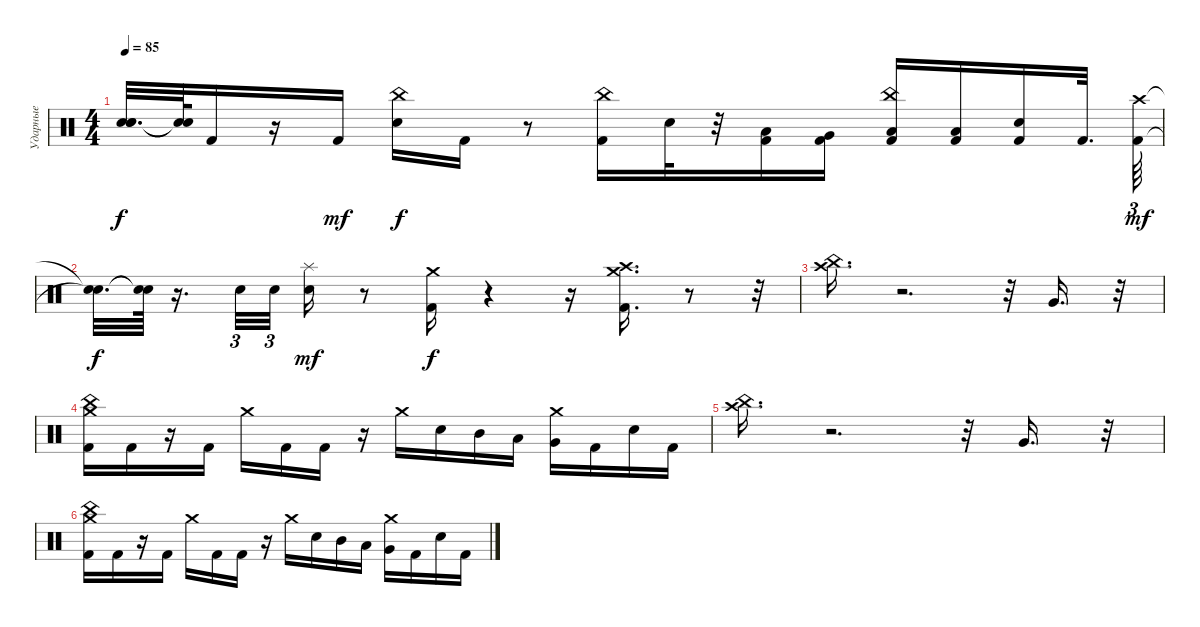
\track ("Ударные" "Ударные") {instrument percussion}
\staff {score}
\articulation defaults
\ts (4 4)
\tempo 85
\clef neutral
\ks c
("Snare (hit)"{t} "Snare (hit)"{t} "Snare (hit)"{t}).32{d dy f} ("Snare (hit)"{t} "Snare (hit)"{t}).64 "Kick (hit) 2".16 r.16 "Kick (hit) 2".16{dy mf} ("Snare (hit) 2" "China (hit)").16{dy f} "Kick (hit) 2".16 r.8 ("Kick (hit) 2" "China (hit)").16 "Electric Snare (hit)".32 r.32 ("Low Tom (hit)" "Kick (hit) 2").16 ("Very Low Tom (hit)" "Kick (hit) 2").16 ("Kick (hit) 2" "Low Floor Tom (hit)" "China (hit)").16 ("Low Floor Tom (hit)" "Kick (hit) 2").16 ("Electric Snare (hit)" "Kick (hit) 2").16 "Kick (hit) 2".32{d} ("Crash high (hit)" "Kick (hit) 2").64{tu (3 2) dy mf} |
("Snare (hit)"{t} "Snare (hit)"{t}).32{d dy f} ("Snare (hit)"{t} "Snare (hit)"{t}).64 r.16{d} "Snare (hit) 2".32{tu (3 2)} "Snare (hit) 2".32{tu (3 2) beam splitsecondary} ("Splash (hit)" "Snare (hit) 2").16{dy mf} r.8 ("Crash medium (hit)" "Kick (hit) 2").16{dy f} r.4 r.16 ("Crash medium (hit)" "Crash high (hit)" "Kick (hit) 2").16{d} r.8 r.32 |
("China (hit)" "Crash high (hit)").16{d} r.2{d} r.32 "Very Low Tom (hit)".16{d} r.32 |
("Crash medium (hit)" "China (hit)" "Kick (hit) 2").16 "Kick (hit) 2".16 r.16 "Kick (hit) 2".16 "Crash medium (hit)".16 "Kick (hit) 2".16 "Kick (hit) 2".16 r.16 "Crash medium (hit)".16 "Snare (hit) 2".16 "Mid Tom (hit)".16 "Low Tom (hit)".16 ("Very Low Tom (hit)" "Crash medium (hit)").16 "Kick (hit) 2".16 "Snare (hit) 2".16 "Kick (hit) 2".16 |
("China (hit)" "Crash high (hit)").16{d} r.2{d} r.32 "Very Low Tom (hit)".16{d} r.32 |
("Crash medium (hit)" "China (hit)" "Kick (hit) 2").16 "Kick (hit) 2".16 r.16 "Kick (hit) 2".16 "Crash medium (hit)".16 "Kick (hit) 2".16 "Kick (hit) 2".16 r.16 "Crash medium (hit)".16 "Snare (hit) 2".16 "Mid Tom (hit)".16 "Low Tom (hit)".16 ("Very Low Tom (hit)" "Crash medium (hit)").16 "Kick (hit) 2".16 "Snare (hit) 2".16 "Kick (hit) 2".16
